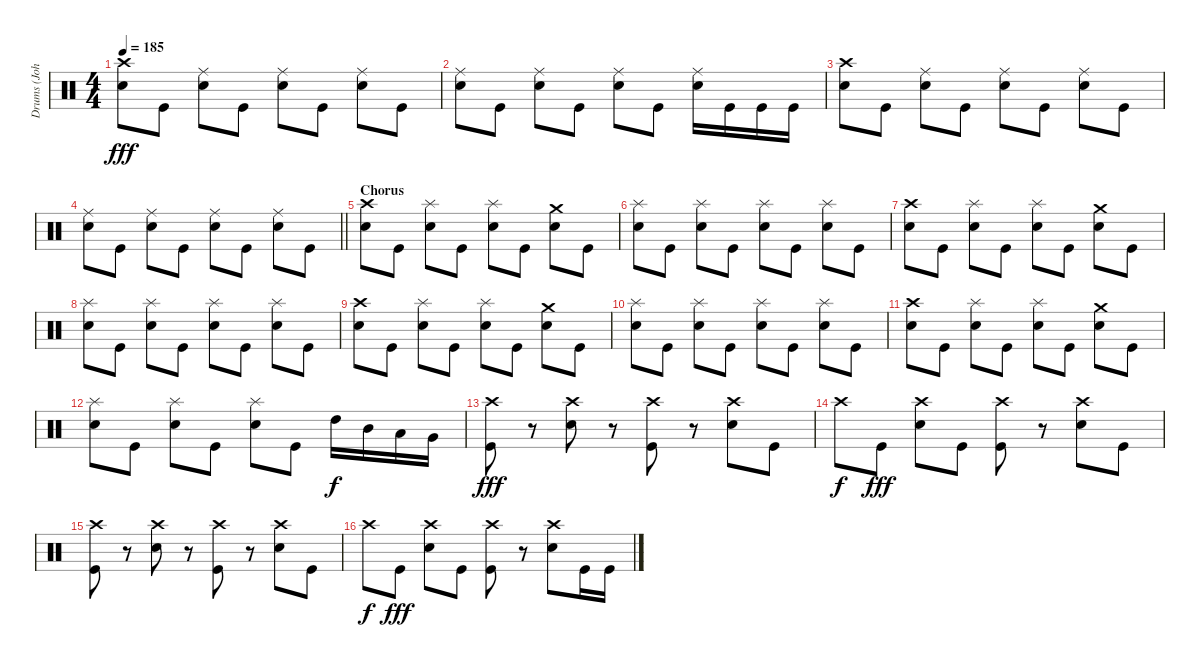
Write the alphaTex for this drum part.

\track ("Drums (John Bengtsson)" "Drums (Joh") {instrument percussion}
\staff {score}
\articulation defaults
\ts (4 4)
\tempo 185
\clef neutral
\ks c
("Crash high (hit)" "Electric Snare (hit)").8{dy fff} "Kick (hit)".8 ("Ride (middle)" "Electric Snare (hit)").8 "Kick (hit)".8 ("Ride (middle)" "Electric Snare (hit)").8 "Kick (hit)".8 ("Ride (middle)" "Electric Snare (hit)").8 "Kick (hit)".8 |
("Ride (middle)" "Electric Snare (hit)").8 "Kick (hit)".8 ("Ride (middle)" "Electric Snare (hit)").8 "Kick (hit)".8 ("Ride (middle)" "Electric Snare (hit)").8 "Kick (hit)".8 ("Ride (middle)" "Electric Snare (hit)").16 "Kick (hit)".16 "Kick (hit)".16 "Kick (hit)".16 |
("Crash high (hit)" "Electric Snare (hit)").8 "Kick (hit)".8 ("Ride (middle)" "Electric Snare (hit)").8 "Kick (hit)".8 ("Ride (middle)" "Electric Snare (hit)").8 "Kick (hit)".8 ("Ride (middle)" "Electric Snare (hit)").8 "Kick (hit)".8 |
\barLineRight lightlight
("Ride (middle)" "Electric Snare (hit)").8 "Kick (hit)".8 ("Ride (middle)" "Electric Snare (hit)").8 "Kick (hit)".8 ("Ride (middle)" "Electric Snare (hit)").8 "Kick (hit)".8 ("Ride (middle)" "Electric Snare (hit)").8 "Kick (hit)".8 |
\section ("" "Chorus")
("Crash high (hit)" "Electric Snare (hit)").8 "Kick (hit)".8 ("Splash (hit)" "Electric Snare (hit)").8 "Kick (hit)".8 ("Splash (hit)" "Electric Snare (hit)").8 "Kick (hit)".8 ("Crash medium (hit)" "Electric Snare (hit)").8 "Kick (hit)".8 |
("Splash (hit)" "Electric Snare (hit)").8 "Kick (hit)".8 ("Splash (hit)" "Electric Snare (hit)").8 "Kick (hit)".8 ("Splash (hit)" "Electric Snare (hit)").8 "Kick (hit)".8 ("Splash (hit)" "Electric Snare (hit)").8 "Kick (hit)".8 |
("Crash high (hit)" "Electric Snare (hit)").8 "Kick (hit)".8 ("Splash (hit)" "Electric Snare (hit)").8 "Kick (hit)".8 ("Splash (hit)" "Electric Snare (hit)").8 "Kick (hit)".8 ("Crash medium (hit)" "Electric Snare (hit)").8 "Kick (hit)".8 |
("Splash (hit)" "Electric Snare (hit)").8 "Kick (hit)".8 ("Splash (hit)" "Electric Snare (hit)").8 "Kick (hit)".8 ("Splash (hit)" "Electric Snare (hit)").8 "Kick (hit)".8 ("Splash (hit)" "Electric Snare (hit)").8 "Kick (hit)".8 |
("Crash high (hit)" "Electric Snare (hit)").8 "Kick (hit)".8 ("Splash (hit)" "Electric Snare (hit)").8 "Kick (hit)".8 ("Splash (hit)" "Electric Snare (hit)").8 "Kick (hit)".8 ("Crash medium (hit)" "Electric Snare (hit)").8 "Kick (hit)".8 |
("Splash (hit)" "Electric Snare (hit)").8 "Kick (hit)".8 ("Splash (hit)" "Electric Snare (hit)").8 "Kick (hit)".8 ("Splash (hit)" "Electric Snare (hit)").8 "Kick (hit)".8 ("Splash (hit)" "Electric Snare (hit)").8 "Kick (hit)".8 |
("Crash high (hit)" "Electric Snare (hit)").8 "Kick (hit)".8 ("Splash (hit)" "Electric Snare (hit)").8 "Kick (hit)".8 ("Splash (hit)" "Electric Snare (hit)").8 "Kick (hit)".8 ("Crash medium (hit)" "Electric Snare (hit)").8 "Kick (hit)".8 |
("Splash (hit)" "Electric Snare (hit)").8 "Kick (hit)".8 ("Splash (hit)" "Electric Snare (hit)").8 "Kick (hit)".8 ("Splash (hit)" "Electric Snare (hit)").8 "Kick (hit)".8 "High Tom (hit)".16{dy f} "Mid Tom (hit)".16 "Low Tom (hit)".16 "Very Low Tom (hit)".16 |
("Crash high (hit)" "Kick (hit)").8{dy fff} r.8 ("Crash high (hit)" "Electric Snare (hit)").8 r.8 ("Crash high (hit)" "Kick (hit)").8 r.8 ("Crash high (hit)" "Electric Snare (hit)").8 "Kick (hit)".8 |
"Crash high (hit)".8{dy f} "Kick (hit)".8{dy fff} ("Crash high (hit)" "Electric Snare (hit)").8 "Kick (hit)".8 ("Crash high (hit)" "Kick (hit)").8 r.8 ("Crash high (hit)" "Electric Snare (hit)").8 "Kick (hit)".8 |
("Crash high (hit)" "Kick (hit)").8 r.8 ("Crash high (hit)" "Electric Snare (hit)").8 r.8 ("Crash high (hit)" "Kick (hit)").8 r.8 ("Crash high (hit)" "Electric Snare (hit)").8 "Kick (hit)".8 |
"Crash high (hit)".8{dy f} "Kick (hit)".8{dy fff} ("Crash high (hit)" "Electric Snare (hit)").8 "Kick (hit)".8 ("Crash high (hit)" "Kick (hit)").8 r.8 ("Crash high (hit)" "Electric Snare (hit)").8 "Kick (hit)".16 "Kick (hit)".16
